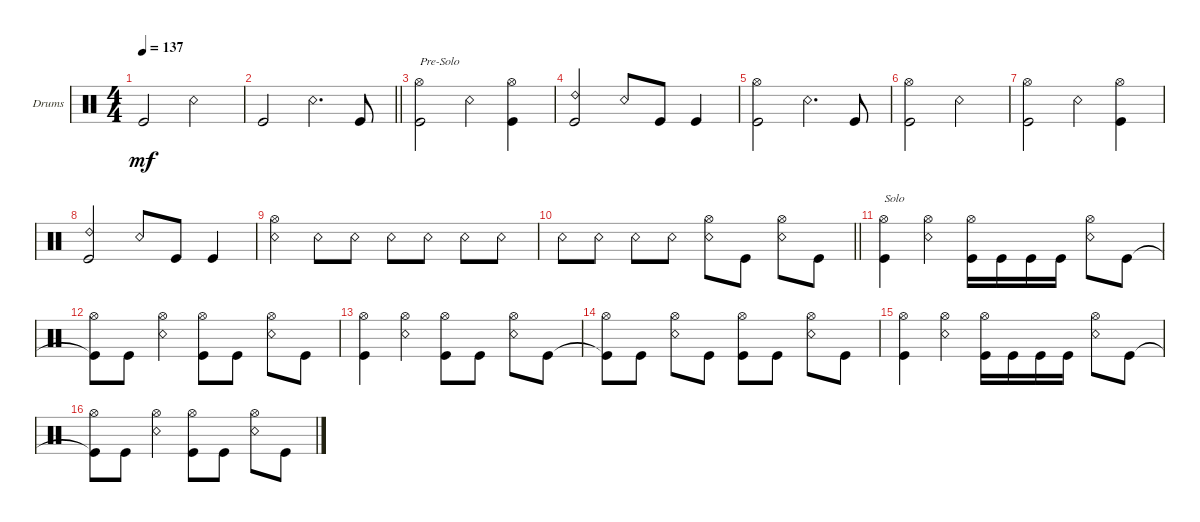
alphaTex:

\defaultSystemsLayout 4
\bracketExtendMode groupsimilarinstruments
\firstSystemTrackNameOrientation horizontal
\otherSystemsTrackNameOrientation horizontal
\track ("Drums" "Drums") {instrument percussion}
\staff {score}
\articulation defaults
\ts (4 4)
\tempo 137
\clef neutral
\scale
0.333333
\ks c "Kick (hit)".2{dy mf} "Snare (rim shot)".2
|
\scale
0.333333
\barLineRight lightlight "Kick (hit)".2 "Snare (rim shot)".4{d} "Kick (hit)".8
|
\scale
0.333333 ("Kick (hit)" "Hi-Hat (open)").2{txt "Pre-Solo"} "Snare (rim shot)".4 ("Kick (hit)" "Hi-Hat (open)").4 |
\scale
0.333333 ("Kick (hit)" "Ride (bell) 2").2 "Snare (rim shot)".8 "Kick (hit)".8 "Kick (hit)".4 |
\scale
0.333333 ("Kick (hit)" "Hi-Hat (open)").2 "Snare (rim shot)".4{d} "Kick (hit)".8 |
\scale
0.333333 ("Kick (hit)" "Hi-Hat (open)").2 "Snare (rim shot)".2 |
\scale
0.333333 ("Kick (hit)" "Hi-Hat (open)").2 "Snare (rim shot)".4 ("Kick (hit)" "Hi-Hat (open)").4 |
\scale
0.333333 ("Kick (hit)" "Ride (bell) 2").2 "Snare (rim shot)".8 "Kick (hit)".8 "Kick (hit)".4 |
\scale
0.333333 ("Snare (rim shot)" "Hi-Hat (open)").4 "Snare (rim shot)".8 "Snare (rim shot)".8 "Snare (rim shot)".8 "Snare (rim shot)".8 "Snare (rim shot)".8 "Snare (rim shot)".8 |
\scale
0.333333
\barLineRight lightlight "Snare (rim shot)".8 "Snare (rim shot)".8 "Snare (rim shot)".8 "Snare (rim shot)".8
("Snare (rim shot)" "Hi-Hat (open)").8 "Kick (hit)".8 ("Snare (rim shot)" "Hi-Hat (open)").8 "Kick (hit)".8 |
\scale
0.333333 ("Kick (hit)" "Hi-Hat (open)").4{txt "Solo"} ("Snare (rim shot)" "Hi-Hat (open)").4 ("Kick (hit)" "Hi-Hat (open)").16 "Kick (hit)".16 "Kick (hit)".16 "Kick (hit)".16 ("Snare (rim shot)" "Hi-Hat (open)").8 "Kick (hit)".8 |
\scale
0.333333 ("Kick (hit)"{t} "Hi-Hat (open)").8 "Kick (hit)".8 ("Snare (rim shot)" "Hi-Hat (open)").4 ("Kick (hit)" "Hi-Hat (open)").8 "Kick (hit)".8 ("Snare (rim shot)" "Hi-Hat (open)").8 "Kick (hit)".8 |
\scale
0.333333 ("Kick (hit)" "Hi-Hat (open)").4 ("Snare (rim shot)" "Hi-Hat (open)").4 ("Kick (hit)" "Hi-Hat (open)").8 "Kick (hit)".8 ("Snare (rim shot)" "Hi-Hat (open)").8 "Kick (hit)".8 |
\scale
0.333333 ("Kick (hit)"{t} "Hi-Hat (open)").8 "Kick (hit)".8 ("Snare (rim shot)" "Hi-Hat (open)").8 "Kick (hit)".8 ("Kick (hit)" "Hi-Hat (open)").8 "Kick (hit)".8 ("Snare (rim shot)" "Hi-Hat (open)").8 "Kick (hit)".8 |
\scale
0.333333 ("Kick (hit)" "Hi-Hat (open)").4 ("Snare (rim shot)" "Hi-Hat (open)").4 ("Kick (hit)" "Hi-Hat (open)").16 "Kick (hit)".16 "Kick (hit)".16 "Kick (hit)".16 ("Snare (rim shot)" "Hi-Hat (open)").8 "Kick (hit)".8 |
\scale
0.333333 ("Kick (hit)"{t} "Hi-Hat (open)").8 "Kick (hit)".8 ("Snare (rim shot)" "Hi-Hat (open)").4 ("Kick (hit)" "Hi-Hat (open)").8 "Kick (hit)".8 ("Snare (rim shot)" "Hi-Hat (open)").8 "Kick (hit)".8
